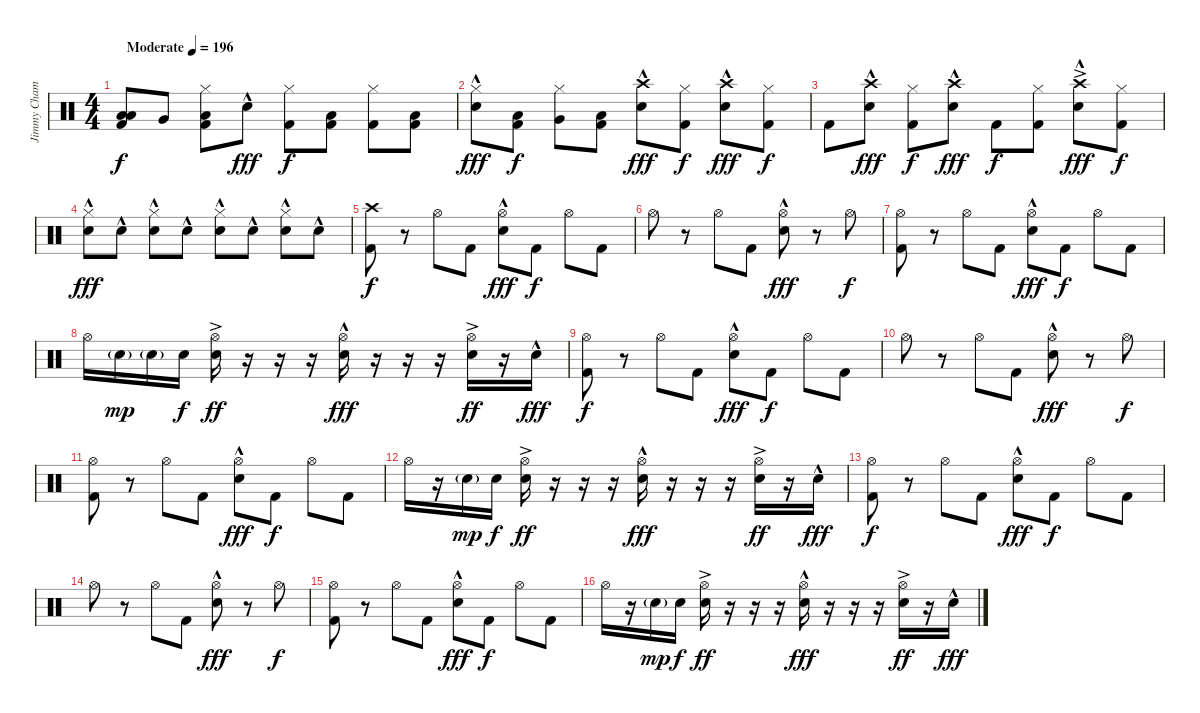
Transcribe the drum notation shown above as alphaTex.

\track ("Jimmy Chamberlin" "Jimmy Cham") {instrument percussion}
\staff {score}
\articulation defaults
\ts (4 4)
\tempo (196 "Moderate")
\clef neutral
\ks c
("Low Tom (hit)" "Low Floor Tom (hit)" "Kick (hit) 2").8{dy f} "Very Low Tom (hit)".8 ("Hi-Hat (closed)" "Low Floor Tom (hit)" "Kick (hit) 2").8 "Electric Snare (hit)"{hac}.8{dy fff} ("Hi-Hat (closed)" "Kick (hit) 2").8{dy f} ("Low Floor Tom (hit)" "Kick (hit) 2").8 ("Hi-Hat (closed)" "Kick (hit) 2").8 ("Low Floor Tom (hit)" "Kick (hit) 2").8 |
("Hi-Hat (closed)" "Electric Snare (hit)"{hac}).8{dy fff} ("Low Tom (hit)" "Kick (hit) 2").8{dy f} ("Hi-Hat (closed)" "Very Low Tom (hit)").8 ("Low Floor Tom (hit)" "Kick (hit) 2").8 ("Crash high (hit)" "Electric Snare (hit)"{hac}).8{dy fff} ("Hi-Hat (closed)" "Kick (hit) 2").8{dy f} ("Crash high (hit)" "Electric Snare (hit)"{hac}).8{dy fff} ("Hi-Hat (closed)" "Kick (hit) 2").8{dy f} |
"Kick (hit) 2".8 ("Crash high (hit)" "Electric Snare (hit)"{hac}).8{dy fff} ("Hi-Hat (closed)" "Kick (hit) 2").8{dy f} ("Crash high (hit)" "Electric Snare (hit)"{hac}).8{dy fff} "Kick (hit) 2".8{dy f} ("Hi-Hat (closed)" "Kick (hit) 2").8 ("Crash high (hit)"{ac} "Electric Snare (hit)"{hac}).8{dy fff} ("Hi-Hat (closed)" "Kick (hit) 2").8{dy f} |
("Hi-Hat (closed)" "Electric Snare (hit)"{hac}).8{dy fff} "Electric Snare (hit)"{hac}.8 ("Hi-Hat (closed)" "Electric Snare (hit)"{hac}).8 "Electric Snare (hit)"{hac}.8 ("Hi-Hat (closed)" "Electric Snare (hit)"{hac}).8 "Electric Snare (hit)"{hac}.8 ("Hi-Hat (closed)" "Electric Snare (hit)"{hac}).8 "Electric Snare (hit)"{hac}.8 |
("Crash high (hit)" "Kick (hit) 2").8{dy f} r.8 "Hi-Hat (open)".8 "Kick (hit) 2".8 ("Hi-Hat (open)" "Electric Snare (hit)"{hac}).8{dy fff} "Kick (hit) 2".8{dy f} "Hi-Hat (open)".8 "Kick (hit) 2".8 |
"Hi-Hat (open)".8 r.8 "Hi-Hat (open)".8 "Kick (hit) 2".8 ("Hi-Hat (open)" "Electric Snare (hit)"{hac}).8{dy fff} r.8 "Hi-Hat (open)".8{dy f} |
("Hi-Hat (open)" "Kick (hit) 2").8 r.8 "Hi-Hat (open)".8 "Kick (hit) 2".8 ("Hi-Hat (open)" "Electric Snare (hit)"{hac}).8{dy fff} "Kick (hit) 2".8{dy f} "Hi-Hat (open)".8 "Kick (hit) 2".8 |
"Hi-Hat (open)".16 "Electric Snare (hit)"{g}.16{dy mp} "Electric Snare (hit)"{g}.16 "Electric Snare (hit)".16{dy f} ("Hi-Hat (open)" "Electric Snare (hit)"{ac}).16{dy ff} r.16 r.16 r.16 ("Hi-Hat (open)" "Electric Snare (hit)"{hac}).16{dy fff} r.16 r.16 r.16 ("Hi-Hat (open)" "Electric Snare (hit)"{ac}).16{dy ff} r.16 "Electric Snare (hit)"{hac}.16{dy fff} |
("Hi-Hat (open)" "Kick (hit) 2").8{dy f} r.8 "Hi-Hat (open)".8 "Kick (hit) 2".8 ("Hi-Hat (open)" "Electric Snare (hit)"{hac}).8{dy fff} "Kick (hit) 2".8{dy f} "Hi-Hat (open)".8 "Kick (hit) 2".8 |
"Hi-Hat (open)".8 r.8 "Hi-Hat (open)".8 "Kick (hit) 2".8 ("Hi-Hat (open)" "Electric Snare (hit)"{hac}).8{dy fff} r.8 "Hi-Hat (open)".8{dy f} |
("Hi-Hat (open)" "Kick (hit) 2").8 r.8 "Hi-Hat (open)".8 "Kick (hit) 2".8 ("Hi-Hat (open)" "Electric Snare (hit)"{hac}).8{dy fff} "Kick (hit) 2".8{dy f} "Hi-Hat (open)".8 "Kick (hit) 2".8 |
"Hi-Hat (open)".16 r.16 "Electric Snare (hit)"{g}.16{dy mp} "Electric Snare (hit)".16{dy f} ("Hi-Hat (open)" "Electric Snare (hit)"{ac}).16{dy ff} r.16 r.16 r.16 ("Hi-Hat (open)" "Electric Snare (hit)"{hac}).16{dy fff} r.16 r.16 r.16 ("Hi-Hat (open)" "Electric Snare (hit)"{ac}).16{dy ff} r.16 "Electric Snare (hit)"{hac}.16{dy fff} |
("Hi-Hat (open)" "Kick (hit) 2").8{dy f} r.8 "Hi-Hat (open)".8 "Kick (hit) 2".8 ("Hi-Hat (open)" "Electric Snare (hit)"{hac}).8{dy fff} "Kick (hit) 2".8{dy f} "Hi-Hat (open)".8 "Kick (hit) 2".8 |
"Hi-Hat (open)".8 r.8 "Hi-Hat (open)".8 "Kick (hit) 2".8 ("Hi-Hat (open)" "Electric Snare (hit)"{hac}).8{dy fff} r.8 "Hi-Hat (open)".8{dy f} |
("Hi-Hat (open)" "Kick (hit) 2").8 r.8 "Hi-Hat (open)".8 "Kick (hit) 2".8 ("Hi-Hat (open)" "Electric Snare (hit)"{hac}).8{dy fff} "Kick (hit) 2".8{dy f} "Hi-Hat (open)".8 "Kick (hit) 2".8 |
"Hi-Hat (open)".16 r.16 "Electric Snare (hit)"{g}.16{dy mp} "Electric Snare (hit)".16{dy f} ("Hi-Hat (open)" "Electric Snare (hit)"{ac}).16{dy ff} r.16 r.16 r.16 ("Hi-Hat (open)" "Electric Snare (hit)"{hac}).16{dy fff} r.16 r.16 r.16 ("Hi-Hat (open)" "Electric Snare (hit)"{ac}).16{dy ff} r.16 "Electric Snare (hit)"{hac}.16{dy fff}
